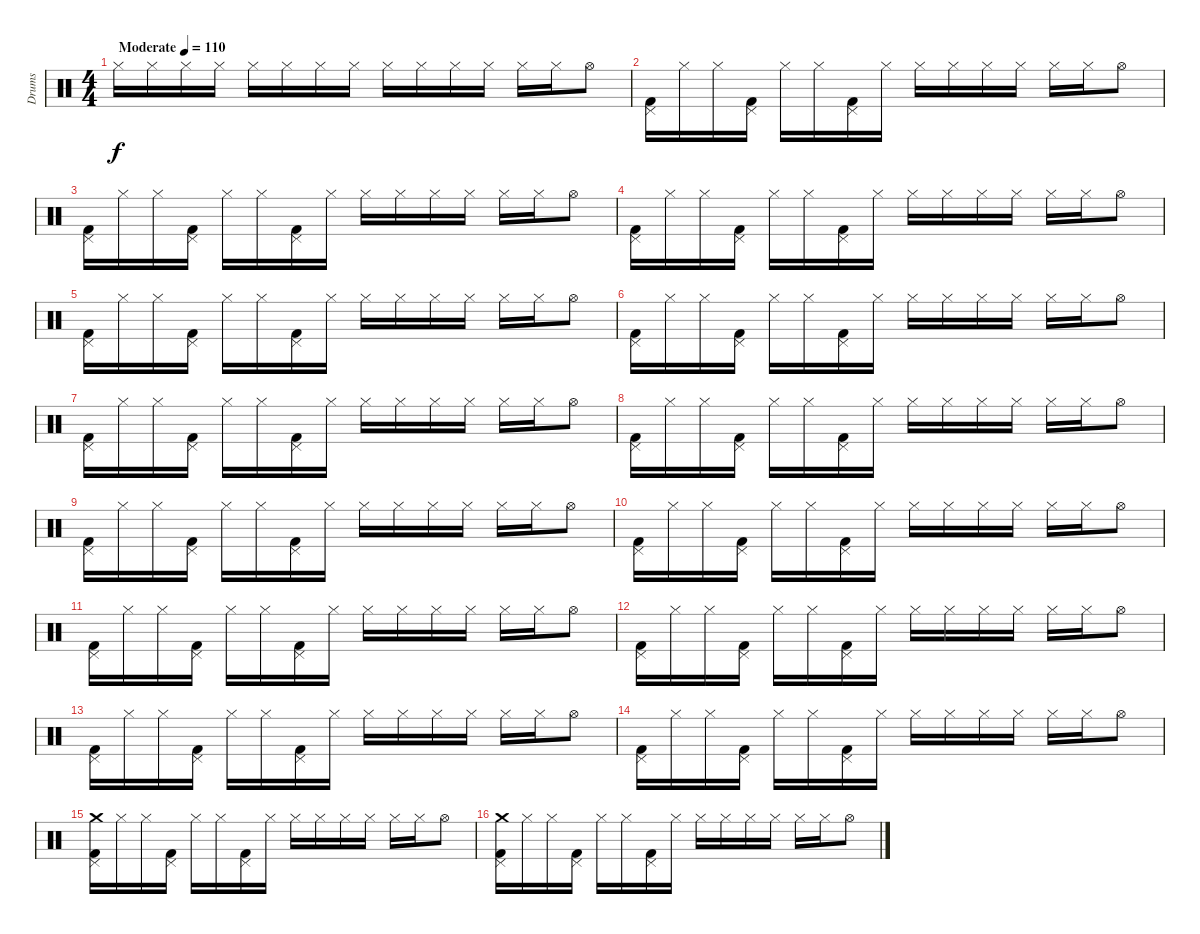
\track ("Drums" "Drums") {instrument percussion}
\staff {score}
\articulation defaults
\ts (4 4)
\tempo (110 "Moderate")
\clef neutral
\ks c "Hi-Hat (closed)".16{dy f} "Hi-Hat (closed)".16 "Hi-Hat (closed)".16 "Hi-Hat (closed)".16 "Hi-Hat (closed)".16 "Hi-Hat (closed)".16 "Hi-Hat (closed)".16 "Hi-Hat (closed)".16 "Hi-Hat (closed)".16 "Hi-Hat (closed)".16 "Hi-Hat (closed)".16 "Hi-Hat (closed)".16 "Hi-Hat (closed)".16 "Hi-Hat (closed)".16 "Hi-Hat (open)".8
|
("Kick (hit) 2" "Pedal Hi-Hat (hit)").16 "Hi-Hat (closed)".16 "Hi-Hat (closed)".16 ("Kick (hit) 2" "Pedal Hi-Hat (hit)").16 "Hi-Hat (closed)".16 "Hi-Hat (closed)".16 ("Kick (hit) 2" "Pedal Hi-Hat (hit)").16 "Hi-Hat (closed)".16 "Hi-Hat (closed)".16 "Hi-Hat (closed)".16 "Hi-Hat (closed)".16 "Hi-Hat (closed)".16 "Hi-Hat (closed)".16 "Hi-Hat (closed)".16 "Hi-Hat (open)".8 |
("Kick (hit) 2" "Pedal Hi-Hat (hit)").16 "Hi-Hat (closed)".16 "Hi-Hat (closed)".16 ("Kick (hit) 2" "Pedal Hi-Hat (hit)").16 "Hi-Hat (closed)".16 "Hi-Hat (closed)".16 ("Kick (hit) 2" "Pedal Hi-Hat (hit)").16 "Hi-Hat (closed)".16 "Hi-Hat (closed)".16 "Hi-Hat (closed)".16 "Hi-Hat (closed)".16 "Hi-Hat (closed)".16 "Hi-Hat (closed)".16 "Hi-Hat (closed)".16 "Hi-Hat (open)".8 |
("Kick (hit) 2" "Pedal Hi-Hat (hit)").16 "Hi-Hat (closed)".16 "Hi-Hat (closed)".16 ("Kick (hit) 2" "Pedal Hi-Hat (hit)").16 "Hi-Hat (closed)".16 "Hi-Hat (closed)".16 ("Kick (hit) 2" "Pedal Hi-Hat (hit)").16 "Hi-Hat (closed)".16 "Hi-Hat (closed)".16 "Hi-Hat (closed)".16 "Hi-Hat (closed)".16 "Hi-Hat (closed)".16 "Hi-Hat (closed)".16 "Hi-Hat (closed)".16 "Hi-Hat (open)".8 |
("Kick (hit) 2" "Pedal Hi-Hat (hit)").16 "Hi-Hat (closed)".16 "Hi-Hat (closed)".16 ("Kick (hit) 2" "Pedal Hi-Hat (hit)").16 "Hi-Hat (closed)".16 "Hi-Hat (closed)".16 ("Kick (hit) 2" "Pedal Hi-Hat (hit)").16 "Hi-Hat (closed)".16 "Hi-Hat (closed)".16 "Hi-Hat (closed)".16 "Hi-Hat (closed)".16 "Hi-Hat (closed)".16 "Hi-Hat (closed)".16 "Hi-Hat (closed)".16 "Hi-Hat (open)".8 |
("Kick (hit) 2" "Pedal Hi-Hat (hit)").16 "Hi-Hat (closed)".16 "Hi-Hat (closed)".16 ("Kick (hit) 2" "Pedal Hi-Hat (hit)").16 "Hi-Hat (closed)".16 "Hi-Hat (closed)".16 ("Kick (hit) 2" "Pedal Hi-Hat (hit)").16 "Hi-Hat (closed)".16 "Hi-Hat (closed)".16 "Hi-Hat (closed)".16 "Hi-Hat (closed)".16 "Hi-Hat (closed)".16 "Hi-Hat (closed)".16 "Hi-Hat (closed)".16 "Hi-Hat (open)".8 |
("Kick (hit) 2" "Pedal Hi-Hat (hit)").16 "Hi-Hat (closed)".16 "Hi-Hat (closed)".16 ("Kick (hit) 2" "Pedal Hi-Hat (hit)").16 "Hi-Hat (closed)".16 "Hi-Hat (closed)".16 ("Kick (hit) 2" "Pedal Hi-Hat (hit)").16 "Hi-Hat (closed)".16 "Hi-Hat (closed)".16 "Hi-Hat (closed)".16 "Hi-Hat (closed)".16 "Hi-Hat (closed)".16 "Hi-Hat (closed)".16 "Hi-Hat (closed)".16 "Hi-Hat (open)".8 |
("Kick (hit) 2" "Pedal Hi-Hat (hit)").16 "Hi-Hat (closed)".16 "Hi-Hat (closed)".16 ("Kick (hit) 2" "Pedal Hi-Hat (hit)").16 "Hi-Hat (closed)".16 "Hi-Hat (closed)".16 ("Kick (hit) 2" "Pedal Hi-Hat (hit)").16 "Hi-Hat (closed)".16 "Hi-Hat (closed)".16 "Hi-Hat (closed)".16 "Hi-Hat (closed)".16 "Hi-Hat (closed)".16 "Hi-Hat (closed)".16 "Hi-Hat (closed)".16 "Hi-Hat (open)".8 |
("Kick (hit) 2" "Pedal Hi-Hat (hit)").16 "Hi-Hat (closed)".16 "Hi-Hat (closed)".16 ("Kick (hit) 2" "Pedal Hi-Hat (hit)").16 "Hi-Hat (closed)".16 "Hi-Hat (closed)".16 ("Kick (hit) 2" "Pedal Hi-Hat (hit)").16 "Hi-Hat (closed)".16 "Hi-Hat (closed)".16 "Hi-Hat (closed)".16 "Hi-Hat (closed)".16 "Hi-Hat (closed)".16 "Hi-Hat (closed)".16 "Hi-Hat (closed)".16 "Hi-Hat (open)".8 |
("Kick (hit) 2" "Pedal Hi-Hat (hit)").16 "Hi-Hat (closed)".16 "Hi-Hat (closed)".16 ("Kick (hit) 2" "Pedal Hi-Hat (hit)").16 "Hi-Hat (closed)".16 "Hi-Hat (closed)".16 ("Kick (hit) 2" "Pedal Hi-Hat (hit)").16 "Hi-Hat (closed)".16 "Hi-Hat (closed)".16 "Hi-Hat (closed)".16 "Hi-Hat (closed)".16 "Hi-Hat (closed)".16 "Hi-Hat (closed)".16 "Hi-Hat (closed)".16 "Hi-Hat (open)".8 |
("Kick (hit) 2" "Pedal Hi-Hat (hit)").16 "Hi-Hat (closed)".16 "Hi-Hat (closed)".16 ("Kick (hit) 2" "Pedal Hi-Hat (hit)").16 "Hi-Hat (closed)".16 "Hi-Hat (closed)".16 ("Kick (hit) 2" "Pedal Hi-Hat (hit)").16 "Hi-Hat (closed)".16 "Hi-Hat (closed)".16 "Hi-Hat (closed)".16 "Hi-Hat (closed)".16 "Hi-Hat (closed)".16 "Hi-Hat (closed)".16 "Hi-Hat (closed)".16 "Hi-Hat (open)".8 |
("Kick (hit) 2" "Pedal Hi-Hat (hit)").16 "Hi-Hat (closed)".16 "Hi-Hat (closed)".16 ("Kick (hit) 2" "Pedal Hi-Hat (hit)").16 "Hi-Hat (closed)".16 "Hi-Hat (closed)".16 ("Kick (hit) 2" "Pedal Hi-Hat (hit)").16 "Hi-Hat (closed)".16 "Hi-Hat (closed)".16 "Hi-Hat (closed)".16 "Hi-Hat (closed)".16 "Hi-Hat (closed)".16 "Hi-Hat (closed)".16 "Hi-Hat (closed)".16 "Hi-Hat (open)".8 |
("Kick (hit) 2" "Pedal Hi-Hat (hit)").16 "Hi-Hat (closed)".16 "Hi-Hat (closed)".16 ("Kick (hit) 2" "Pedal Hi-Hat (hit)").16 "Hi-Hat (closed)".16 "Hi-Hat (closed)".16 ("Kick (hit) 2" "Pedal Hi-Hat (hit)").16 "Hi-Hat (closed)".16 "Hi-Hat (closed)".16 "Hi-Hat (closed)".16 "Hi-Hat (closed)".16 "Hi-Hat (closed)".16 "Hi-Hat (closed)".16 "Hi-Hat (closed)".16 "Hi-Hat (open)".8 |
("Kick (hit) 2" "Pedal Hi-Hat (hit)").16 "Hi-Hat (closed)".16 "Hi-Hat (closed)".16 ("Kick (hit) 2" "Pedal Hi-Hat (hit)").16 "Hi-Hat (closed)".16 "Hi-Hat (closed)".16 ("Kick (hit) 2" "Pedal Hi-Hat (hit)").16 "Hi-Hat (closed)".16 "Hi-Hat (closed)".16 "Hi-Hat (closed)".16 "Hi-Hat (closed)".16 "Hi-Hat (closed)".16 "Hi-Hat (closed)".16 "Hi-Hat (closed)".16 "Hi-Hat (open)".8 |
("Kick (hit) 2" "Pedal Hi-Hat (hit)" "Crash medium (hit)").16 "Hi-Hat (closed)".16 "Hi-Hat (closed)".16 ("Kick (hit) 2" "Pedal Hi-Hat (hit)").16 "Hi-Hat (closed)".16 "Hi-Hat (closed)".16 ("Kick (hit) 2" "Pedal Hi-Hat (hit)").16 "Hi-Hat (closed)".16 "Hi-Hat (closed)".16 "Hi-Hat (closed)".16 "Hi-Hat (closed)".16 "Hi-Hat (closed)".16 "Hi-Hat (closed)".16 "Hi-Hat (closed)".16 "Hi-Hat (open)".8 |
("Kick (hit) 2" "Pedal Hi-Hat (hit)" "Crash medium (hit)").16 "Hi-Hat (closed)".16 "Hi-Hat (closed)".16 ("Kick (hit) 2" "Pedal Hi-Hat (hit)").16 "Hi-Hat (closed)".16 "Hi-Hat (closed)".16 ("Kick (hit) 2" "Pedal Hi-Hat (hit)").16 "Hi-Hat (closed)".16 "Hi-Hat (closed)".16 "Hi-Hat (closed)".16 "Hi-Hat (closed)".16 "Hi-Hat (closed)".16 "Hi-Hat (closed)".16 "Hi-Hat (closed)".16 "Hi-Hat (open)".8
